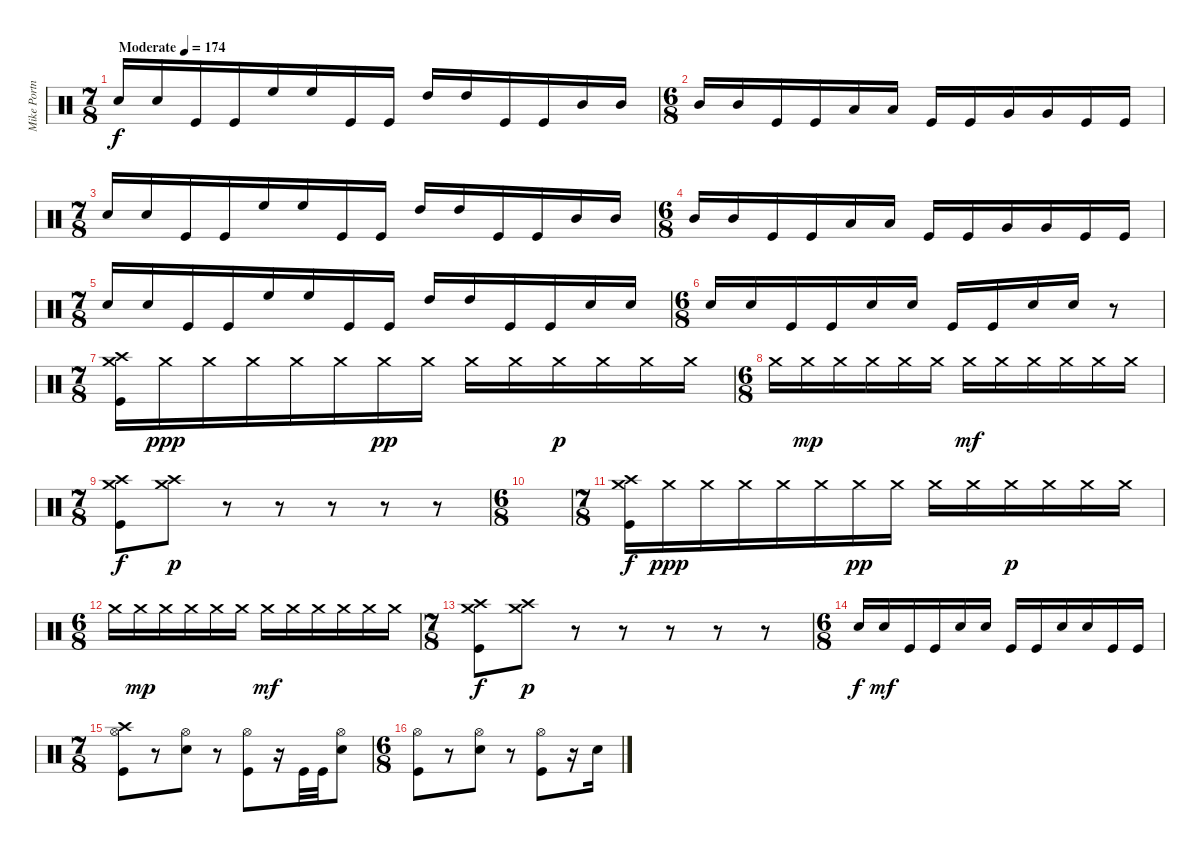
\track ("Mike Portnoy" "Mike Portn") {instrument percussion}
\staff {score}
\articulation defaults
\ts (7 8)
\tempo (174 "Moderate")
\clef neutral
\ks c "Snare (hit) 2".16{dy f} "Snare (hit) 2".16 "Kick (hit)".16 "Kick (hit)".16 "High Floor Tom (hit)".16 "High Floor Tom (hit)".16 "Kick (hit)".16 "Kick (hit)".16 "High Tom (hit)".16 "High Tom (hit)".16 "Kick (hit)".16 "Kick (hit)".16 "Mid Tom (hit)".16 "Mid Tom (hit)".16
|
\ts (6 8)
"Mid Tom (hit)".16 "Mid Tom (hit)".16 "Kick (hit)".16 "Kick (hit)".16 "Low Tom (hit)".16 "Low Tom (hit)".16 "Kick (hit)".16 "Kick (hit)".16 "Very Low Tom (hit)".16 "Very Low Tom (hit)".16 "Kick (hit)".16 "Kick (hit)".16 |
\ts (7 8)
"Snare (hit) 2".16 "Snare (hit) 2".16 "Kick (hit)".16 "Kick (hit)".16 "High Floor Tom (hit)".16 "High Floor Tom (hit)".16 "Kick (hit)".16 "Kick (hit)".16 "High Tom (hit)".16 "High Tom (hit)".16 "Kick (hit)".16 "Kick (hit)".16 "Mid Tom (hit)".16 "Mid Tom (hit)".16 |
\ts (6 8)
"Mid Tom (hit)".16 "Mid Tom (hit)".16 "Kick (hit)".16 "Kick (hit)".16 "Low Tom (hit)".16 "Low Tom (hit)".16 "Kick (hit)".16 "Kick (hit)".16 "Very Low Tom (hit)".16 "Very Low Tom (hit)".16 "Kick (hit)".16 "Kick (hit)".16 |
\ts (7 8)
"Snare (hit) 2".16 "Snare (hit) 2".16 "Kick (hit)".16 "Kick (hit)".16 "High Floor Tom (hit)".16 "High Floor Tom (hit)".16 "Kick (hit)".16 "Kick (hit)".16 "High Tom (hit)".16 "High Tom (hit)".16 "Kick (hit)".16 "Kick (hit)".16 "Snare (hit) 2".16 "Snare (hit) 2".16 |
\ts (6 8)
"Snare (hit) 2".16 "Snare (hit) 2".16 "Kick (hit)".16 "Kick (hit)".16 "Snare (hit) 2".16 "Snare (hit) 2".16 "Kick (hit)".16 "Kick (hit)".16 "Snare (hit) 2".16 "Snare (hit) 2".16 r.8 |
\ts (7 8)
("Crash high (hit)" "Crash medium (hit)" "Kick (hit)").16 "Crash medium (hit)".16{dy ppp} "Crash medium (hit)".16 "Crash medium (hit)".16 "Crash medium (hit)".16 "Crash medium (hit)".16 "Crash medium (hit)".16{dy pp} "Crash medium (hit)".16 "Crash medium (hit)".16 "Crash medium (hit)".16 "Crash medium (hit)".16{dy p} "Crash medium (hit)".16 "Crash medium (hit)".16 "Crash medium (hit)".16 |
\ts (6 8)
"Crash medium (hit)".16 "Crash medium (hit)".16{dy mp} "Crash medium (hit)".16 "Crash medium (hit)".16 "Crash medium (hit)".16 "Crash medium (hit)".16 "Crash medium (hit)".16{dy mf} "Crash medium (hit)".16 "Crash medium (hit)".16 "Crash medium (hit)".16 "Crash medium (hit)".16 "Crash medium (hit)".16 |
\ts (7 8)
("Crash medium (hit)" "Crash high (hit)" "Kick (hit)").8{dy f} ("Crash medium (hit)" "Crash high (hit)").8{dy p} r.8 r.8 r.8 r.8 r.8 |
\ts (6 8)
|
\ts (7 8)
("Crash high (hit)" "Crash medium (hit)" "Kick (hit)").16{dy f} "Crash medium (hit)".16{dy ppp} "Crash medium (hit)".16 "Crash medium (hit)".16 "Crash medium (hit)".16 "Crash medium (hit)".16 "Crash medium (hit)".16{dy pp} "Crash medium (hit)".16 "Crash medium (hit)".16 "Crash medium (hit)".16 "Crash medium (hit)".16{dy p} "Crash medium (hit)".16 "Crash medium (hit)".16 "Crash medium (hit)".16 |
\ts (6 8)
"Crash medium (hit)".16 "Crash medium (hit)".16{dy mp} "Crash medium (hit)".16 "Crash medium (hit)".16 "Crash medium (hit)".16 "Crash medium (hit)".16 "Crash medium (hit)".16{dy mf} "Crash medium (hit)".16 "Crash medium (hit)".16 "Crash medium (hit)".16 "Crash medium (hit)".16 "Crash medium (hit)".16 |
\ts (7 8)
("Crash medium (hit)" "Crash high (hit)" "Kick (hit)").8{dy f} ("Crash medium (hit)" "Crash high (hit)").8{dy p} r.8 r.8 r.8 r.8 r.8 |
\ts (6 8)
"Snare (hit) 2".16{dy f} "Snare (hit) 2".16{dy mf} "Kick (hit)".16 "Kick (hit)".16 "Snare (hit) 2".16 "Snare (hit) 2".16 "Kick (hit)".16 "Kick (hit)".16 "Snare (hit) 2".16 "Snare (hit) 2".16 "Kick (hit)".16 "Kick (hit)".16 |
\ts (7 8)
("Crash high (hit)" "Hi-Hat (open)" "Kick (hit)").8 r.8 ("Snare (hit) 2" "Hi-Hat (open)").8 r.8 ("Hi-Hat (open)" "Kick (hit)").8 r.16 "Kick (hit)".32 "Kick (hit)".32 ("Snare (hit) 2" "Hi-Hat (open)").8 |
\ts (6 8)
("Hi-Hat (open)" "Kick (hit)").8 r.8 ("Snare (hit) 2" "Hi-Hat (open)").8 r.8 ("Hi-Hat (open)" "Kick (hit)").8 r.16 "Snare (hit) 2".16
